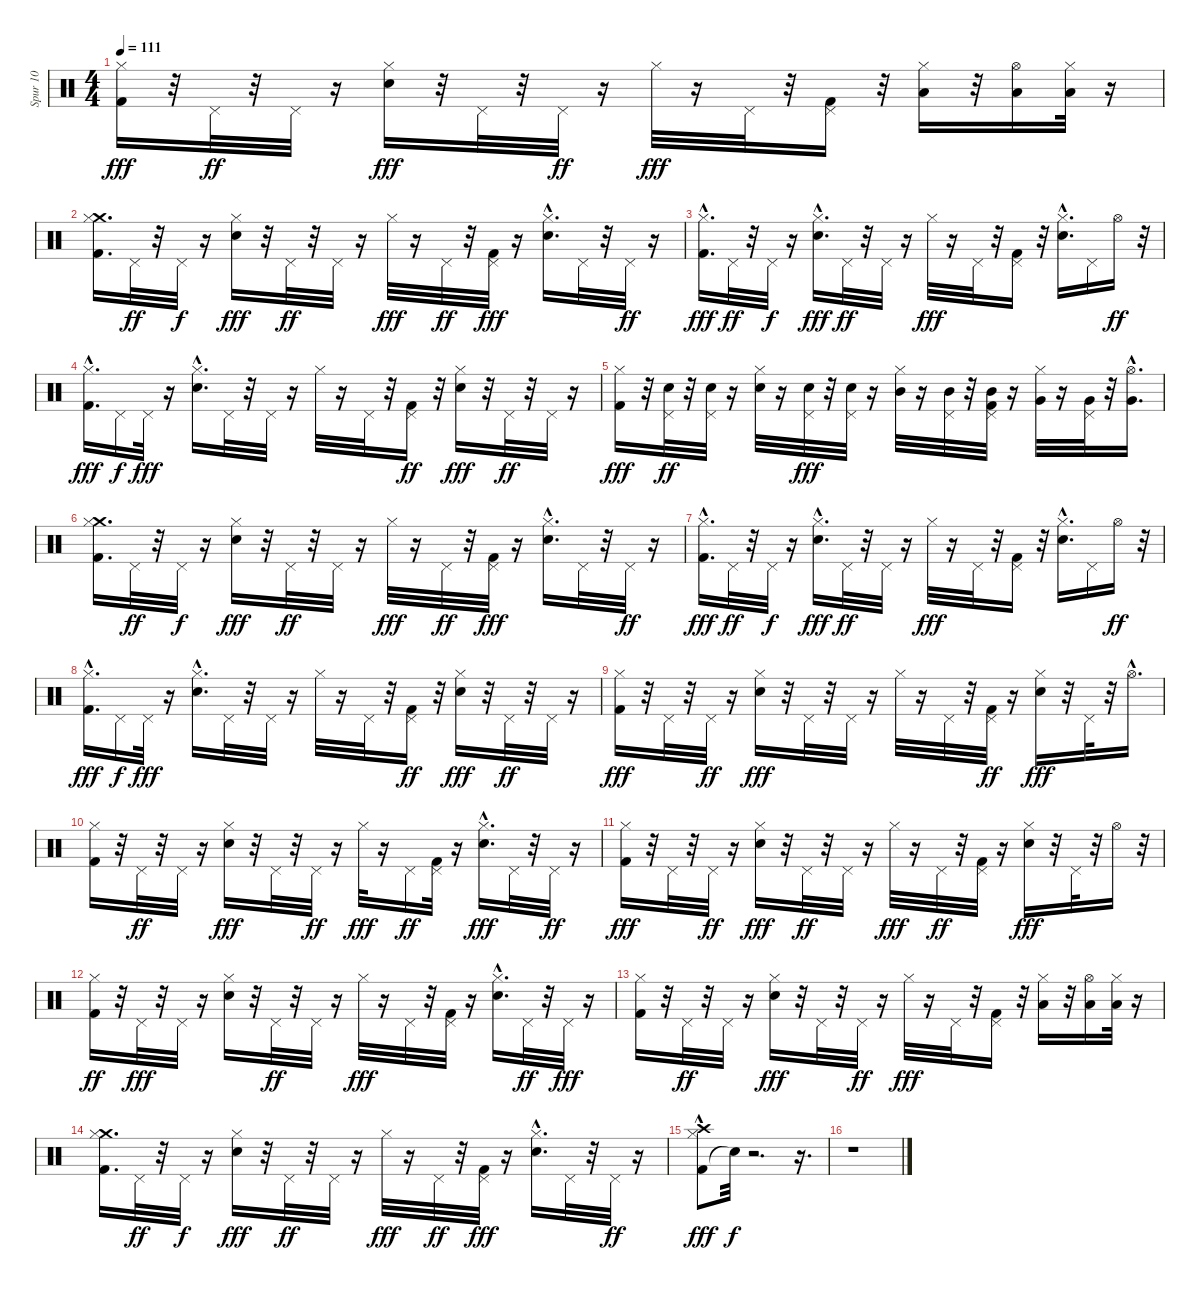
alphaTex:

\track ("Spur 10" "Spur 10") {instrument percussion}
\staff {score}
\articulation defaults
\ts (4 4)
\tempo 111
\clef neutral
\ks c
("Kick (hit) 2" "Hi-Hat (closed)").16{dy fff} r.32 "Pedal Hi-Hat (hit)".32{dy ff} r.32 "Pedal Hi-Hat (hit)".32 r.16 ("Snare (hit) 2" "Hi-Hat (closed)").16{dy fff} r.32 "Pedal Hi-Hat (hit)".32 r.32 "Pedal Hi-Hat (hit)".32{dy ff} r.16 "Hi-Hat (closed)".32{dy fff} r.16 "Pedal Hi-Hat (hit)".32 r.32 ("Kick (hit) 2" "Pedal Hi-Hat (hit)").16 r.32 ("Low Tom (hit)" "Hi-Hat (closed)").16 r.32 ("Low Tom (hit)" "Hi-Hat (open)").16 ("Low Floor Tom (hit)" "Hi-Hat (closed)").32 r.16 |
("Kick (hit) 2" "Crash medium (hit)" "Hi-Hat (closed)").16{d} "Pedal Hi-Hat (hit)".32{dy ff} r.32 "Pedal Hi-Hat (hit)".32{dy f} r.16 ("Snare (hit) 2" "Hi-Hat (closed)").16{dy fff} r.32 "Pedal Hi-Hat (hit)".32{dy ff} r.32 "Pedal Hi-Hat (hit)".32 r.16 "Hi-Hat (closed)".32{dy fff} r.16 "Pedal Hi-Hat (hit)".32{dy ff} r.32 ("Kick (hit) 2" "Pedal Hi-Hat (hit)").32{dy fff} r.16 ("Snare (hit) 2"{hac} "Hi-Hat (closed)").16{d} "Pedal Hi-Hat (hit)".32 r.32 "Pedal Hi-Hat (hit)".32{dy ff} r.16 |
("Kick (hit) 2"{hac} "Hi-Hat (closed)").16{d dy fff} "Pedal Hi-Hat (hit)".32{dy ff} r.32 "Pedal Hi-Hat (hit)".32{dy f} r.16 ("Snare (hit) 2"{hac} "Hi-Hat (closed)").16{d dy fff} "Pedal Hi-Hat (hit)".32{dy ff} r.32 "Pedal Hi-Hat (hit)".32 r.16 "Hi-Hat (closed)".32{dy fff} r.16 "Pedal Hi-Hat (hit)".32 r.32 ("Kick (hit) 2" "Pedal Hi-Hat (hit)").16 r.32 ("Snare (hit) 2"{hac} "Hi-Hat (closed)").16{d} "Pedal Hi-Hat (hit)".16 "Hi-Hat (open)".16{dy ff} r.32 |
("Kick (hit) 2"{hac} "Hi-Hat (closed)").16{d dy fff} "Pedal Hi-Hat (hit)".16{dy f} "Pedal Hi-Hat (hit)".32{dy fff} r.16 ("Snare (hit) 2"{hac} "Hi-Hat (closed)").16{d} "Pedal Hi-Hat (hit)".32 r.32 "Pedal Hi-Hat (hit)".32 r.16 "Hi-Hat (closed)".32 r.16 "Pedal Hi-Hat (hit)".32 r.32 ("Kick (hit) 2" "Pedal Hi-Hat (hit)").16{dy ff} r.32 ("Snare (hit) 2" "Hi-Hat (closed)").16{dy fff} r.32 "Pedal Hi-Hat (hit)".32{dy ff} r.32 "Pedal Hi-Hat (hit)".32 r.16 |
("Kick (hit) 2" "Hi-Hat (closed)").16{dy fff} r.32 ("Pedal Hi-Hat (hit)" "Snare (hit) 2").32{dy ff} r.32 ("Pedal Hi-Hat (hit)" "Snare (hit) 2").32 r.16 ("Hi-Hat (closed)" "Snare (hit) 2").32 r.16 ("Pedal Hi-Hat (hit)" "Snare (hit) 2").32{dy fff} r.32 ("Pedal Hi-Hat (hit)" "Snare (hit) 2").32 r.16 ("Hi-Hat (closed)" "Mid Tom (hit)").32 r.16 ("Pedal Hi-Hat (hit)" "Mid Tom (hit)").32 r.32 ("Kick (hit) 2" "Pedal Hi-Hat (hit)" "Mid Tom (hit)").32 r.16 ("Hi-Hat (closed)" "Very Low Tom (hit)").32 r.16 ("Pedal Hi-Hat (hit)" "Very Low Tom (hit)").32 r.32 ("Hi-Hat (open)"{hac} "Very Low Tom (hit)").16{d} |
("Kick (hit) 2" "Crash medium (hit)" "Hi-Hat (closed)").16{d} "Pedal Hi-Hat (hit)".32{dy ff} r.32 "Pedal Hi-Hat (hit)".32{dy f} r.16 ("Snare (hit) 2" "Hi-Hat (closed)").16{dy fff} r.32 "Pedal Hi-Hat (hit)".32{dy ff} r.32 "Pedal Hi-Hat (hit)".32 r.16 "Hi-Hat (closed)".32{dy fff} r.16 "Pedal Hi-Hat (hit)".32{dy ff} r.32 ("Kick (hit) 2" "Pedal Hi-Hat (hit)").32{dy fff} r.16 ("Snare (hit) 2"{hac} "Hi-Hat (closed)").16{d} "Pedal Hi-Hat (hit)".32 r.32 "Pedal Hi-Hat (hit)".32{dy ff} r.16 |
("Kick (hit) 2"{hac} "Hi-Hat (closed)").16{d dy fff} "Pedal Hi-Hat (hit)".32{dy ff} r.32 "Pedal Hi-Hat (hit)".32{dy f} r.16 ("Snare (hit) 2"{hac} "Hi-Hat (closed)").16{d dy fff} "Pedal Hi-Hat (hit)".32{dy ff} r.32 "Pedal Hi-Hat (hit)".32 r.16 "Hi-Hat (closed)".32{dy fff} r.16 "Pedal Hi-Hat (hit)".32 r.32 ("Kick (hit) 2" "Pedal Hi-Hat (hit)").16 r.32 ("Snare (hit) 2"{hac} "Hi-Hat (closed)").16{d} "Pedal Hi-Hat (hit)".16 "Hi-Hat (open)".16{dy ff} r.32 |
("Kick (hit) 2"{hac} "Hi-Hat (closed)").16{d dy fff} "Pedal Hi-Hat (hit)".16{dy f} "Pedal Hi-Hat (hit)".32{dy fff} r.16 ("Snare (hit) 2"{hac} "Hi-Hat (closed)").16{d} "Pedal Hi-Hat (hit)".32 r.32 "Pedal Hi-Hat (hit)".32 r.16 "Hi-Hat (closed)".32 r.16 "Pedal Hi-Hat (hit)".32 r.32 ("Kick (hit) 2" "Pedal Hi-Hat (hit)").16{dy ff} r.32 ("Snare (hit) 2" "Hi-Hat (closed)").16{dy fff} r.32 "Pedal Hi-Hat (hit)".32{dy ff} r.32 "Pedal Hi-Hat (hit)".32 r.16 |
("Kick (hit) 2" "Hi-Hat (closed)").16{dy fff} r.32 "Pedal Hi-Hat (hit)".32 r.32 "Pedal Hi-Hat (hit)".32{dy ff} r.16 ("Snare (hit) 2" "Hi-Hat (closed)").16{dy fff} r.32 "Pedal Hi-Hat (hit)".32 r.32 "Pedal Hi-Hat (hit)".32 r.16 "Hi-Hat (closed)".32 r.16 "Pedal Hi-Hat (hit)".32 r.32 ("Kick (hit) 2" "Pedal Hi-Hat (hit)").32{dy ff} r.16 ("Snare (hit) 2" "Hi-Hat (closed)").16{dy fff} r.32 "Pedal Hi-Hat (hit)".32 r.32 "Hi-Hat (open)"{hac}.16{d} |
("Kick (hit) 2" "Hi-Hat (closed)").16 r.32 "Pedal Hi-Hat (hit)".32{dy ff} r.32 "Pedal Hi-Hat (hit)".32 r.16 ("Snare (hit) 2" "Hi-Hat (closed)").16{dy fff} r.32 "Pedal Hi-Hat (hit)".32 r.32 "Pedal Hi-Hat (hit)".32{dy ff} r.16 "Hi-Hat (closed)".32{dy fff} r.16 "Pedal Hi-Hat (hit)".16{dy ff} ("Kick (hit) 2" "Pedal Hi-Hat (hit)").32 r.16 ("Snare (hit) 2"{hac} "Hi-Hat (closed)").16{d dy fff} "Pedal Hi-Hat (hit)".32 r.32 "Pedal Hi-Hat (hit)".32{dy ff} r.16 |
("Kick (hit) 2" "Hi-Hat (closed)").16{dy fff} r.32 "Pedal Hi-Hat (hit)".32 r.32 "Pedal Hi-Hat (hit)".32{dy ff} r.16 ("Snare (hit) 2" "Hi-Hat (closed)").16{dy fff} r.32 "Pedal Hi-Hat (hit)".32{dy ff} r.32 "Pedal Hi-Hat (hit)".32 r.16 "Hi-Hat (closed)".32{dy fff} r.16 "Pedal Hi-Hat (hit)".32{dy ff} r.32 ("Kick (hit) 2" "Pedal Hi-Hat (hit)").32 r.16 ("Snare (hit) 2" "Hi-Hat (closed)").16{dy fff} r.32 "Pedal Hi-Hat (hit)".32 r.32 "Hi-Hat (open)".16 r.32 |
("Kick (hit) 2" "Hi-Hat (closed)").16{dy ff} r.32 "Pedal Hi-Hat (hit)".32{dy fff} r.32 "Pedal Hi-Hat (hit)".32 r.16 ("Snare (hit) 2" "Hi-Hat (closed)").16 r.32 "Pedal Hi-Hat (hit)".32{dy ff} r.32 "Pedal Hi-Hat (hit)".32 r.16 "Hi-Hat (closed)".32{dy fff} r.16 "Pedal Hi-Hat (hit)".32 r.32 ("Kick (hit) 2" "Pedal Hi-Hat (hit)").32 r.16 ("Snare (hit) 2"{hac} "Hi-Hat (closed)").16{d} "Pedal Hi-Hat (hit)".32{dy ff} r.32 "Pedal Hi-Hat (hit)".32{dy fff} r.16 |
("Kick (hit) 2" "Hi-Hat (closed)").16 r.32 "Pedal Hi-Hat (hit)".32{dy ff} r.32 "Pedal Hi-Hat (hit)".32 r.16 ("Snare (hit) 2" "Hi-Hat (closed)").16{dy fff} r.32 "Pedal Hi-Hat (hit)".32 r.32 "Pedal Hi-Hat (hit)".32{dy ff} r.16 "Hi-Hat (closed)".32{dy fff} r.16 "Pedal Hi-Hat (hit)".32 r.32 ("Kick (hit) 2" "Pedal Hi-Hat (hit)").16 r.32 ("Low Tom (hit)" "Hi-Hat (closed)").16 r.32 ("Low Tom (hit)" "Hi-Hat (open)").16 ("Low Floor Tom (hit)" "Hi-Hat (closed)").32 r.16 |
("Kick (hit) 2" "Crash medium (hit)" "Hi-Hat (closed)").16{d} "Pedal Hi-Hat (hit)".32{dy ff} r.32 "Pedal Hi-Hat (hit)".32{dy f} r.16 ("Snare (hit) 2" "Hi-Hat (closed)").16{dy fff} r.32 "Pedal Hi-Hat (hit)".32{dy ff} r.32 "Pedal Hi-Hat (hit)".32 r.16 "Hi-Hat (closed)".32{dy fff} r.16 "Pedal Hi-Hat (hit)".32{dy ff} r.32 ("Kick (hit) 2" "Pedal Hi-Hat (hit)").32{dy fff} r.16 ("Snare (hit) 2"{hac} "Hi-Hat (closed)").16{d} "Pedal Hi-Hat (hit)".32 r.32 "Pedal Hi-Hat (hit)".32{dy ff} r.16 |
("Kick (hit) 2"{hac} "Hi-Hat (closed)" "Crash high (hit)").8{dy fff} "Snare (hit)"{t}.32{dy f} r.2{d} r.16{d} |
r.1
